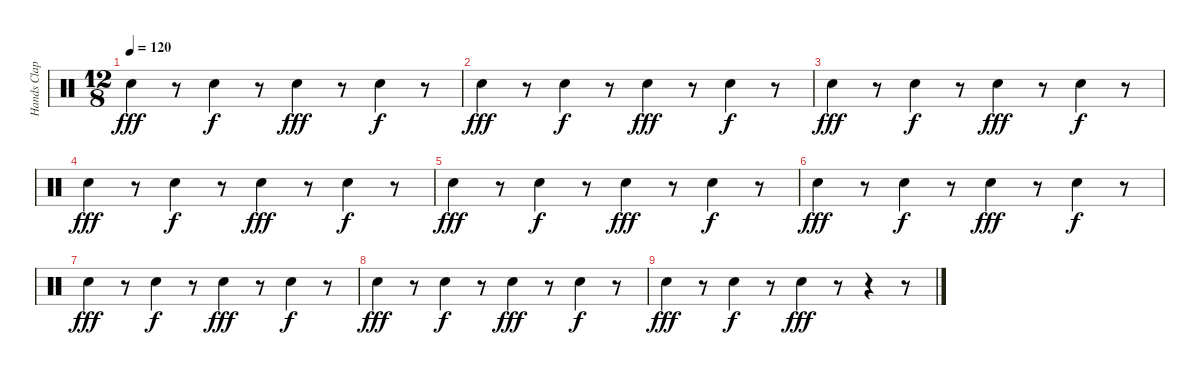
\track ("Hands Claping" "Hands Clap") {instrument percussion}
\staff {score}
\articulation defaults
\ts (12 8)
\tempo 120
\clef neutral
\ks c "Hand Clap (hit)".4{dy fff}
r.8 "Hand Clap (hit)".4{dy f} r.8 "Hand Clap (hit)".4{dy fff} r.8 "Hand Clap (hit)".4{dy f} r.8 |
"Hand Clap (hit)".4{dy fff} r.8 "Hand Clap (hit)".4{dy f} r.8 "Hand Clap (hit)".4{dy fff} r.8 "Hand Clap (hit)".4{dy f} r.8 |
"Hand Clap (hit)".4{dy fff} r.8 "Hand Clap (hit)".4{dy f} r.8 "Hand Clap (hit)".4{dy fff} r.8 "Hand Clap (hit)".4{dy f} r.8 |
"Hand Clap (hit)".4{dy fff} r.8 "Hand Clap (hit)".4{dy f} r.8 "Hand Clap (hit)".4{dy fff} r.8 "Hand Clap (hit)".4{dy f} r.8 |
"Hand Clap (hit)".4{dy fff} r.8 "Hand Clap (hit)".4{dy f} r.8 "Hand Clap (hit)".4{dy fff} r.8 "Hand Clap (hit)".4{dy f} r.8 |
"Hand Clap (hit)".4{dy fff} r.8 "Hand Clap (hit)".4{dy f} r.8 "Hand Clap (hit)".4{dy fff} r.8 "Hand Clap (hit)".4{dy f} r.8 |
"Hand Clap (hit)".4{dy fff} r.8 "Hand Clap (hit)".4{dy f} r.8 "Hand Clap (hit)".4{dy fff} r.8 "Hand Clap (hit)".4{dy f} r.8 |
"Hand Clap (hit)".4{dy fff} r.8 "Hand Clap (hit)".4{dy f} r.8 "Hand Clap (hit)".4{dy fff} r.8 "Hand Clap (hit)".4{dy f} r.8 |
"Hand Clap (hit)".4{dy fff} r.8 "Hand Clap (hit)".4{dy f} r.8 "Hand Clap (hit)".4{dy fff} r.8 r.4 r.8
